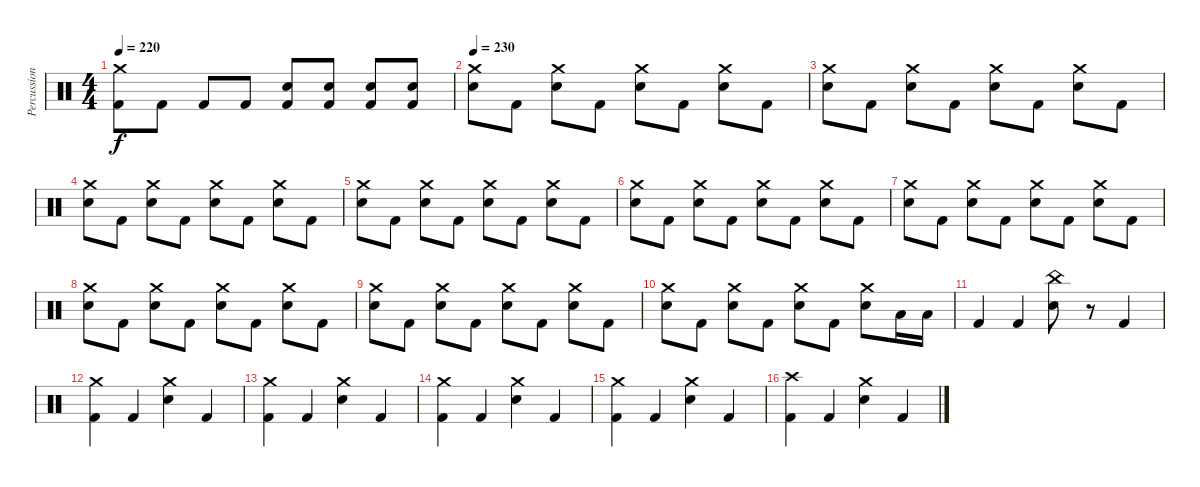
\track ("Percussions" "Percussion") {instrument percussion}
\staff {score}
\articulation defaults
\ts (4 4)
\tempo 220
\clef neutral
\ks c
("Kick (hit) 2" "Crash medium (hit)").8{dy f} "Kick (hit) 2".8 "Kick (hit) 2".8 "Kick (hit) 2".8 ("Kick (hit) 2" "Electric Snare (hit)").8 ("Kick (hit) 2" "Electric Snare (hit)").8 ("Kick (hit) 2" "Electric Snare (hit)").8 ("Kick (hit) 2" "Electric Snare (hit)").8 |
\tempo 230
("Electric Snare (hit)" "Crash medium (hit)").8{volume 7} "Kick (hit) 2".8{volume 12} ("Electric Snare (hit)" "Crash medium (hit)").8 "Kick (hit) 2".8 ("Electric Snare (hit)" "Crash medium (hit)").8 "Kick (hit) 2".8 ("Electric Snare (hit)" "Crash medium (hit)").8 "Kick (hit) 2".8 |
("Electric Snare (hit)" "Crash medium (hit)").8 "Kick (hit) 2".8 ("Electric Snare (hit)" "Crash medium (hit)").8 "Kick (hit) 2".8 ("Electric Snare (hit)" "Crash medium (hit)").8 "Kick (hit) 2".8 ("Electric Snare (hit)" "Crash medium (hit)").8 "Kick (hit) 2".8 |
("Electric Snare (hit)" "Crash medium (hit)").8{volume 13} "Kick (hit) 2".8 ("Electric Snare (hit)" "Crash medium (hit)").8 "Kick (hit) 2".8 ("Electric Snare (hit)" "Crash medium (hit)").8 "Kick (hit) 2".8 ("Electric Snare (hit)" "Crash medium (hit)").8 "Kick (hit) 2".8 |
("Electric Snare (hit)" "Crash medium (hit)").8 "Kick (hit) 2".8 ("Electric Snare (hit)" "Crash medium (hit)").8 "Kick (hit) 2".8 ("Electric Snare (hit)" "Crash medium (hit)").8 "Kick (hit) 2".8 ("Electric Snare (hit)" "Crash medium (hit)").8 "Kick (hit) 2".8 |
("Electric Snare (hit)" "Crash medium (hit)").8 "Kick (hit) 2".8 ("Electric Snare (hit)" "Crash medium (hit)").8 "Kick (hit) 2".8 ("Electric Snare (hit)" "Crash medium (hit)").8 "Kick (hit) 2".8 ("Electric Snare (hit)" "Crash medium (hit)").8 "Kick (hit) 2".8 |
("Electric Snare (hit)" "Crash medium (hit)").8 "Kick (hit) 2".8 ("Electric Snare (hit)" "Crash medium (hit)").8 "Kick (hit) 2".8 ("Electric Snare (hit)" "Crash medium (hit)").8 "Kick (hit) 2".8 ("Electric Snare (hit)" "Crash medium (hit)").8 "Kick (hit) 2".8 |
("Electric Snare (hit)" "Crash medium (hit)").8 "Kick (hit) 2".8 ("Electric Snare (hit)" "Crash medium (hit)").8 "Kick (hit) 2".8 ("Electric Snare (hit)" "Crash medium (hit)").8 "Kick (hit) 2".8 ("Electric Snare (hit)" "Crash medium (hit)").8 "Kick (hit) 2".8 |
("Electric Snare (hit)" "Crash medium (hit)").8 "Kick (hit) 2".8 ("Electric Snare (hit)" "Crash medium (hit)").8 "Kick (hit) 2".8 ("Electric Snare (hit)" "Crash medium (hit)").8 "Kick (hit) 2".8 ("Electric Snare (hit)" "Crash medium (hit)").8 "Kick (hit) 2".8 |
("Electric Snare (hit)" "Crash medium (hit)").8 "Kick (hit) 2".8 ("Electric Snare (hit)" "Crash medium (hit)").8 "Kick (hit) 2".8 ("Electric Snare (hit)" "Crash medium (hit)").8 "Kick (hit) 2".8 ("Electric Snare (hit)" "Crash medium (hit)").8 "Low Tom (hit)".16 "Low Tom (hit)".16 |
"Kick (hit) 2".4 "Kick (hit) 2".4 ("Electric Snare (hit)" "China (hit)").8 r.8 "Kick (hit) 2".4 |
("Kick (hit) 2" "Crash medium (hit)").4 "Kick (hit) 2".4 ("Electric Snare (hit)" "Crash medium (hit)").4 "Kick (hit) 2".4 |
("Kick (hit) 2" "Crash medium (hit)").4 "Kick (hit) 2".4 ("Electric Snare (hit)" "Crash medium (hit)").4 "Kick (hit) 2".4 |
("Kick (hit) 2" "Crash medium (hit)").4 "Kick (hit) 2".4 ("Electric Snare (hit)" "Crash medium (hit)").4 "Kick (hit) 2".4 |
("Kick (hit) 2" "Crash medium (hit)").4 "Kick (hit) 2".4 ("Electric Snare (hit)" "Crash medium (hit)").4 "Kick (hit) 2".4 |
("Kick (hit) 2" "Crash high (hit)").4 "Kick (hit) 2".4 ("Electric Snare (hit)" "Crash medium (hit)").4 "Kick (hit) 2".4
